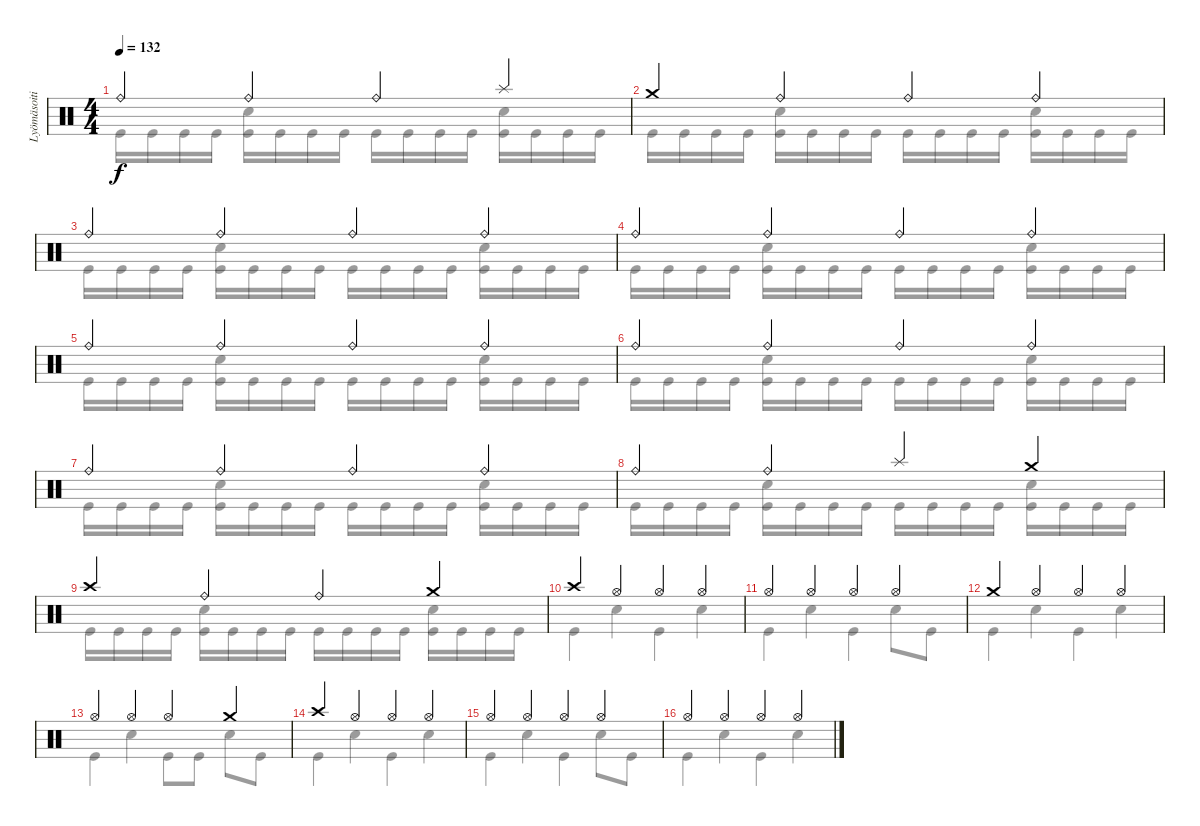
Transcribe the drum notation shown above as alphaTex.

\track ("Lyömäsoitin" "Lyömäsoiti") {instrument percussion}
\staff {score}
\articulation defaults
\voice
\ts (4 4)
\tempo 132
\clef neutral
\ks c "Ride (bell)".4{dy f} "Ride (bell)".4 "Ride (bell)".4 "Splash (hit)".4
|
"Crash medium (hit)".4 "Ride (bell)".4 "Ride (bell)".4 "Ride (bell)".4 |
"Ride (bell)".4 "Ride (bell)".4 "Ride (bell)".4 "Ride (bell)".4 |
"Ride (bell)".4 "Ride (bell)".4 "Ride (bell)".4 "Ride (bell)".4 |
"Ride (bell)".4 "Ride (bell)".4 "Ride (bell)".4 "Ride (bell)".4 |
"Ride (bell)".4 "Ride (bell)".4 "Ride (bell)".4 "Ride (bell)".4 |
"Ride (bell)".4 "Ride (bell)".4 "Ride (bell)".4 "Ride (bell)".4 |
"Ride (bell)".4 "Ride (bell)".4 "Splash (hit)".4 "Crash medium (hit)".4 |
"Crash high (hit)".4 "Ride (bell)".4 "Ride (bell)".4 "Crash medium (hit)".4 |
"Crash high (hit)".4 "Hi-Hat (open)".4 "Hi-Hat (open)".4 "Hi-Hat (open)".4 |
"Hi-Hat (open)".4 "Hi-Hat (open)".4 "Hi-Hat (open)".4 "Hi-Hat (open)".4 |
"Crash medium (hit)".4 "Hi-Hat (open)".4 "Hi-Hat (open)".4 "Hi-Hat (open)".4 |
"Hi-Hat (open)".4 "Hi-Hat (open)".4 "Hi-Hat (open)".4 "Crash medium (hit)".4 |
"Crash high (hit)".4 "Hi-Hat (open)".4 "Hi-Hat (open)".4 "Hi-Hat (open)".4 |
"Hi-Hat (open)".4 "Hi-Hat (open)".4 "Hi-Hat (open)".4 "Hi-Hat (open)".4 |
"Hi-Hat (open)".4 "Hi-Hat (open)".4 "Hi-Hat (open)".4 "Hi-Hat (open)".4
\voice
\clef neutral
\ottava regular
\simile none
\ks c "Kick (hit)".16{dy f} "Kick (hit)".16 "Kick (hit)".16 "Kick (hit)".16
("Electric Snare (hit)" "Kick (hit)").16 "Kick (hit)".16 "Kick (hit)".16 "Kick (hit)".16 "Kick (hit)".16 "Kick (hit)".16 "Kick (hit)".16 "Kick (hit)".16 ("Electric Snare (hit)" "Kick (hit)").16 "Kick (hit)".16 "Kick (hit)".16 "Kick (hit)".16 |
"Kick (hit)".16 "Kick (hit)".16 "Kick (hit)".16 "Kick (hit)".16 ("Electric Snare (hit)" "Kick (hit)").16 "Kick (hit)".16 "Kick (hit)".16 "Kick (hit)".16 "Kick (hit)".16 "Kick (hit)".16 "Kick (hit)".16 "Kick (hit)".16 ("Electric Snare (hit)" "Kick (hit)").16 "Kick (hit)".16 "Kick (hit)".16 "Kick (hit)".16 |
"Kick (hit)".16 "Kick (hit)".16 "Kick (hit)".16 "Kick (hit)".16 ("Electric Snare (hit)" "Kick (hit)").16 "Kick (hit)".16 "Kick (hit)".16 "Kick (hit)".16 "Kick (hit)".16 "Kick (hit)".16 "Kick (hit)".16 "Kick (hit)".16 ("Electric Snare (hit)" "Kick (hit)").16 "Kick (hit)".16 "Kick (hit)".16 "Kick (hit)".16 |
"Kick (hit)".16 "Kick (hit)".16 "Kick (hit)".16 "Kick (hit)".16 ("Electric Snare (hit)" "Kick (hit)").16 "Kick (hit)".16 "Kick (hit)".16 "Kick (hit)".16 "Kick (hit)".16 "Kick (hit)".16 "Kick (hit)".16 "Kick (hit)".16 ("Electric Snare (hit)" "Kick (hit)").16 "Kick (hit)".16 "Kick (hit)".16 "Kick (hit)".16 |
"Kick (hit)".16 "Kick (hit)".16 "Kick (hit)".16 "Kick (hit)".16 ("Electric Snare (hit)" "Kick (hit)").16 "Kick (hit)".16 "Kick (hit)".16 "Kick (hit)".16 "Kick (hit)".16 "Kick (hit)".16 "Kick (hit)".16 "Kick (hit)".16 ("Electric Snare (hit)" "Kick (hit)").16 "Kick (hit)".16 "Kick (hit)".16 "Kick (hit)".16 |
"Kick (hit)".16 "Kick (hit)".16 "Kick (hit)".16 "Kick (hit)".16 ("Electric Snare (hit)" "Kick (hit)").16 "Kick (hit)".16 "Kick (hit)".16 "Kick (hit)".16 "Kick (hit)".16 "Kick (hit)".16 "Kick (hit)".16 "Kick (hit)".16 ("Electric Snare (hit)" "Kick (hit)").16 "Kick (hit)".16 "Kick (hit)".16 "Kick (hit)".16 |
"Kick (hit)".16 "Kick (hit)".16 "Kick (hit)".16 "Kick (hit)".16 ("Electric Snare (hit)" "Kick (hit)").16 "Kick (hit)".16 "Kick (hit)".16 "Kick (hit)".16 "Kick (hit)".16 "Kick (hit)".16 "Kick (hit)".16 "Kick (hit)".16 ("Electric Snare (hit)" "Kick (hit)").16 "Kick (hit)".16 "Kick (hit)".16 "Kick (hit)".16 |
"Kick (hit)".16 "Kick (hit)".16 "Kick (hit)".16 "Kick (hit)".16 ("Electric Snare (hit)" "Kick (hit)").16 "Kick (hit)".16 "Kick (hit)".16 "Kick (hit)".16 "Kick (hit)".16 "Kick (hit)".16 "Kick (hit)".16 "Kick (hit)".16 ("Electric Snare (hit)" "Kick (hit)").16 "Kick (hit)".16 "Kick (hit)".16 "Kick (hit)".16 |
"Kick (hit)".16 "Kick (hit)".16 "Kick (hit)".16 "Kick (hit)".16 ("Electric Snare (hit)" "Kick (hit)").16 "Kick (hit)".16 "Kick (hit)".16 "Kick (hit)".16 "Kick (hit)".16 "Kick (hit)".16 "Kick (hit)".16 "Kick (hit)".16 ("Electric Snare (hit)" "Kick (hit)").16 "Kick (hit)".16 "Kick (hit)".16 "Kick (hit)".16 |
"Kick (hit)".4 "Electric Snare (hit)".4 "Kick (hit)".4 "Electric Snare (hit)".4 |
"Kick (hit)".4 "Electric Snare (hit)".4 "Kick (hit)".4 "Electric Snare (hit)".8 "Kick (hit)".8 |
"Kick (hit)".4 "Electric Snare (hit)".4 "Kick (hit)".4 "Electric Snare (hit)".4 |
"Kick (hit)".4 "Electric Snare (hit)".4 "Kick (hit)".8 "Kick (hit)".8 "Electric Snare (hit)".8 "Kick (hit)".8 |
"Kick (hit)".4 "Electric Snare (hit)".4 "Kick (hit)".4 "Electric Snare (hit)".4 |
"Kick (hit)".4 "Electric Snare (hit)".4 "Kick (hit)".4 "Electric Snare (hit)".8 "Kick (hit)".8 |
"Kick (hit)".4 "Electric Snare (hit)".4 "Kick (hit)".4 "Electric Snare (hit)".4
